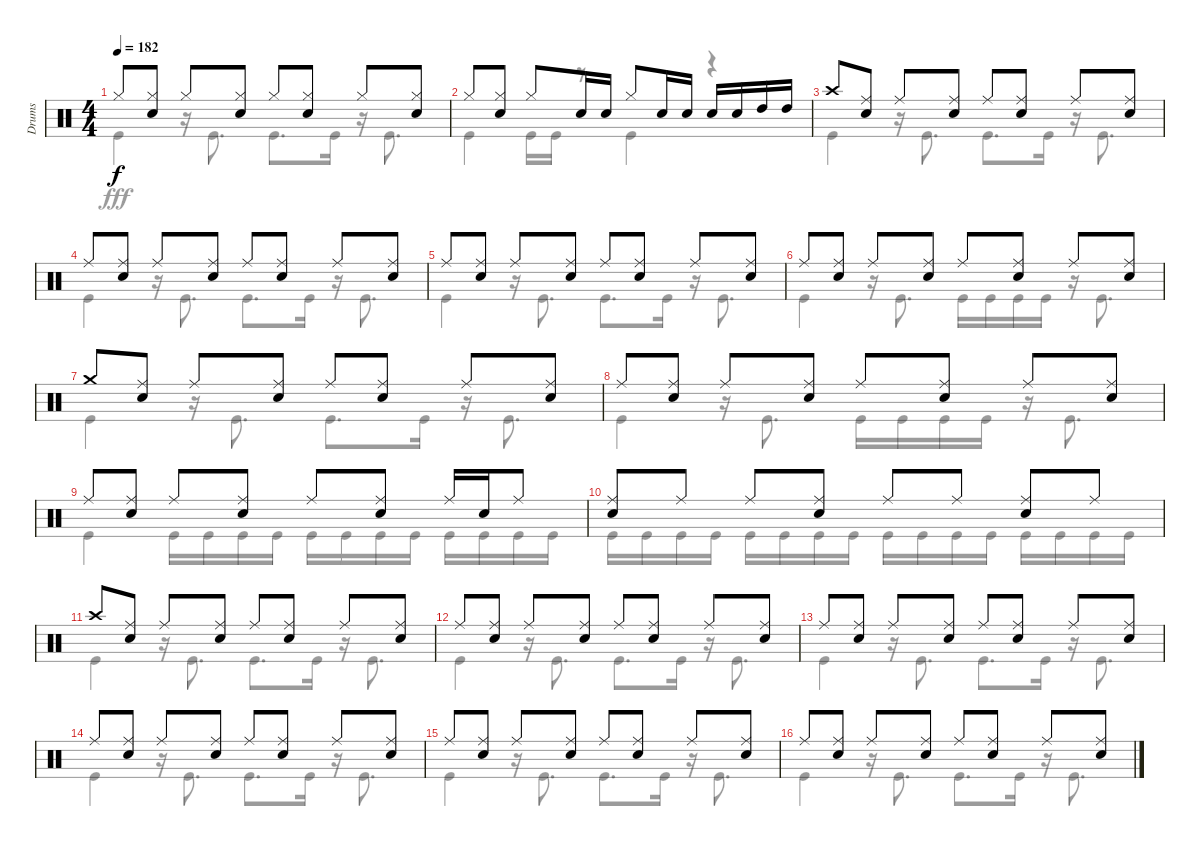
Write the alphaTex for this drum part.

\track ("Drums" "Drums") {instrument percussion}
\staff {score}
\articulation defaults
\voice
\ts (4 4)
\tempo 182
\clef neutral
\ks c "Hi-Hat (closed)".8{dy f}
("Hi-Hat (closed)" "Snare (hit) 2").8 "Hi-Hat (closed)".8 ("Hi-Hat (closed)" "Snare (hit) 2").8 "Hi-Hat (closed)".8 ("Hi-Hat (closed)" "Snare (hit) 2").8 "Hi-Hat (closed)".8 ("Hi-Hat (closed)" "Snare (hit) 2").8 |
"Hi-Hat (closed)".8 ("Hi-Hat (closed)" "Snare (hit) 2").8 "Hi-Hat (closed)".8 "Snare (hit) 2".16 "Snare (hit) 2".16 "Hi-Hat (closed)".8 "Snare (hit) 2".16 "Snare (hit) 2".16 "Snare (hit) 2".16 "Snare (hit) 2".16 "High Tom (hit)".16 "High Tom (hit)".16 |
"Crash high (hit)".8 ("Ride (middle)" "Snare (hit) 2").8 "Ride (middle)".8 ("Ride (middle)" "Snare (hit) 2").8 "Ride (middle)".8 ("Ride (middle)" "Snare (hit) 2").8 "Ride (middle)".8 ("Ride (middle)" "Snare (hit) 2").8 |
"Ride (middle)".8 ("Ride (middle)" "Snare (hit) 2").8 "Ride (middle)".8 ("Ride (middle)" "Snare (hit) 2").8 "Ride (middle)".8 ("Ride (middle)" "Snare (hit) 2").8 "Ride (middle)".8 ("Ride (middle)" "Snare (hit) 2").8 |
"Ride (middle)".8 ("Ride (middle)" "Snare (hit) 2").8 "Ride (middle)".8 ("Ride (middle)" "Snare (hit) 2").8 "Ride (middle)".8 ("Ride (middle)" "Snare (hit) 2").8 "Ride (middle)".8 ("Ride (middle)" "Snare (hit) 2").8 |
"Ride (middle)".8 ("Ride (middle)" "Snare (hit) 2").8 "Ride (middle)".8 ("Ride (middle)" "Snare (hit) 2").8 "Ride (middle)".8 ("Ride (middle)" "Snare (hit) 2").8 "Ride (middle)".8 ("Ride (middle)" "Snare (hit) 2").8 |
"Crash medium (hit)".8 ("Ride (middle)" "Snare (hit) 2").8 "Ride (middle)".8 ("Ride (middle)" "Snare (hit) 2").8 "Ride (middle)".8 ("Ride (middle)" "Snare (hit) 2").8 "Ride (middle)".8 ("Ride (middle)" "Snare (hit) 2").8 |
"Ride (middle)".8 ("Ride (middle)" "Snare (hit) 2").8 "Ride (middle)".8 ("Ride (middle)" "Snare (hit) 2").8 "Ride (middle)".8 ("Ride (middle)" "Snare (hit) 2").8 "Ride (middle)".8 ("Ride (middle)" "Snare (hit) 2").8 |
"Ride (middle)".8 ("Ride (middle)" "Snare (hit) 2").8 "Ride (middle)".8 ("Ride (middle)" "Snare (hit) 2").8 "Ride (middle)".8 ("Ride (middle)" "Snare (hit) 2").8 "Ride (middle)".16 "Snare (hit) 2".16 "Ride (middle)".8 |
("Ride (middle)" "Snare (hit) 2").8 "Ride (middle)".8 "Ride (middle)".8 ("Ride (middle)" "Snare (hit) 2").8 "Ride (middle)".8 "Ride (middle)".8 ("Ride (middle)" "Snare (hit) 2").8 "Ride (middle)".8 |
"Crash high (hit)".8 ("Ride (middle)" "Snare (hit) 2").8 "Ride (middle)".8 ("Ride (middle)" "Snare (hit) 2").8 "Ride (middle)".8 ("Ride (middle)" "Snare (hit) 2").8 "Ride (middle)".8 ("Ride (middle)" "Snare (hit) 2").8 |
"Ride (middle)".8 ("Ride (middle)" "Snare (hit) 2").8 "Ride (middle)".8 ("Ride (middle)" "Snare (hit) 2").8 "Ride (middle)".8 ("Ride (middle)" "Snare (hit) 2").8 "Ride (middle)".8 ("Ride (middle)" "Snare (hit) 2").8 |
"Ride (middle)".8 ("Ride (middle)" "Snare (hit) 2").8 "Ride (middle)".8 ("Ride (middle)" "Snare (hit) 2").8 "Ride (middle)".8 ("Ride (middle)" "Snare (hit) 2").8 "Ride (middle)".8 ("Ride (middle)" "Snare (hit) 2").8 |
"Ride (middle)".8 ("Ride (middle)" "Snare (hit) 2").8 "Ride (middle)".8 ("Ride (middle)" "Snare (hit) 2").8 "Ride (middle)".8 ("Ride (middle)" "Snare (hit) 2").8 "Ride (middle)".8 ("Ride (middle)" "Snare (hit) 2").8 |
"Ride (middle)".8 ("Ride (middle)" "Snare (hit) 2").8 "Ride (middle)".8 ("Ride (middle)" "Snare (hit) 2").8 "Ride (middle)".8 ("Ride (middle)" "Snare (hit) 2").8 "Ride (middle)".8 ("Ride (middle)" "Snare (hit) 2").8 |
"Ride (middle)".8 ("Ride (middle)" "Snare (hit) 2").8 "Ride (middle)".8 ("Ride (middle)" "Snare (hit) 2").8 "Ride (middle)".8 ("Ride (middle)" "Snare (hit) 2").8 "Ride (middle)".8 ("Ride (middle)" "Snare (hit) 2").8
\voice
\clef neutral
\ottava regular
\simile none
\ks c "Kick (hit)".4{dy fff}
r.16 "Kick (hit)".8{d} "Kick (hit)".8{d} "Kick (hit)".16 r.16 "Kick (hit)".8{d} |
"Kick (hit)".4 "Kick (hit)".16 "Kick (hit)".16 r.8 "Kick (hit)".4 r.4 |
"Kick (hit)".4 r.16 "Kick (hit)".8{d} "Kick (hit)".8{d} "Kick (hit)".16 r.16 "Kick (hit)".8{d} |
"Kick (hit)".4 r.16 "Kick (hit)".8{d} "Kick (hit)".8{d} "Kick (hit)".16 r.16 "Kick (hit)".8{d} |
"Kick (hit)".4 r.16 "Kick (hit)".8{d} "Kick (hit)".8{d} "Kick (hit)".16 r.16 "Kick (hit)".8{d} |
"Kick (hit)".4 r.16 "Kick (hit)".8{d} "Kick (hit)".16 "Kick (hit)".16 "Kick (hit)".16 "Kick (hit)".16 r.16 "Kick (hit)".8{d} |
"Kick (hit)".4 r.16 "Kick (hit)".8{d} "Kick (hit)".8{d} "Kick (hit)".16 r.16 "Kick (hit)".8{d} |
"Kick (hit)".4 r.16 "Kick (hit)".8{d} "Kick (hit)".16 "Kick (hit)".16 "Kick (hit)".16 "Kick (hit)".16 r.16 "Kick (hit)".8{d} |
"Kick (hit)".4 "Kick (hit)".16 "Kick (hit)".16 "Kick (hit)".16 "Kick (hit)".16 "Kick (hit)".16 "Kick (hit)".16 "Kick (hit)".16 "Kick (hit)".16 "Kick (hit)".16 "Kick (hit)".16 "Kick (hit)".16 "Kick (hit)".16 |
"Kick (hit)".16 "Kick (hit)".16 "Kick (hit)".16 "Kick (hit)".16 "Kick (hit)".16 "Kick (hit)".16 "Kick (hit)".16 "Kick (hit)".16 "Kick (hit)".16 "Kick (hit)".16 "Kick (hit)".16 "Kick (hit)".16 "Kick (hit)".16 "Kick (hit)".16 "Kick (hit)".16 "Kick (hit)".16 |
"Kick (hit)".4 r.16 "Kick (hit)".8{d} "Kick (hit)".8{d} "Kick (hit)".16 r.16 "Kick (hit)".8{d} |
"Kick (hit)".4 r.16 "Kick (hit)".8{d} "Kick (hit)".8{d} "Kick (hit)".16 r.16 "Kick (hit)".8{d} |
"Kick (hit)".4 r.16 "Kick (hit)".8{d} "Kick (hit)".8{d} "Kick (hit)".16 r.16 "Kick (hit)".8{d} |
"Kick (hit)".4 r.16 "Kick (hit)".8{d} "Kick (hit)".8{d} "Kick (hit)".16 r.16 "Kick (hit)".8{d} |
"Kick (hit)".4 r.16 "Kick (hit)".8{d} "Kick (hit)".8{d} "Kick (hit)".16 r.16 "Kick (hit)".8{d} |
"Kick (hit)".4 r.16 "Kick (hit)".8{d} "Kick (hit)".8{d} "Kick (hit)".16 r.16 "Kick (hit)".8{d}
